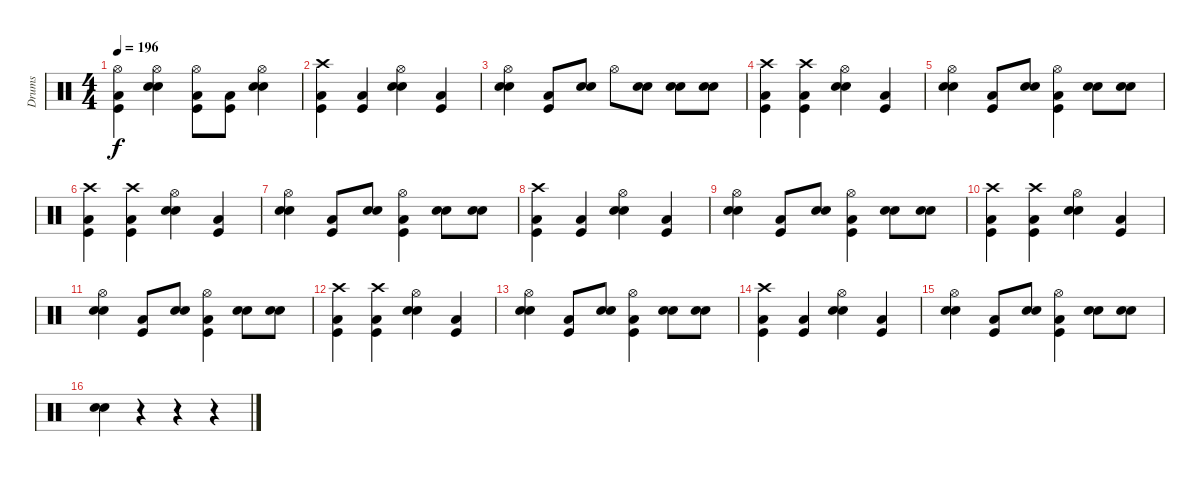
\track ("Drums" "Drums") {instrument percussion}
\staff {score}
\articulation defaults
\ts (4 4)
\tempo 196
\clef neutral
\ks c
("Hi-Hat (open)" "Kick (hit)" "Low Tom (hit)").4{dy f} ("Hi-Hat (open)" "Snare (hit) 2" "Electric Snare (hit)").4 ("Hi-Hat (open)" "Kick (hit)" "Low Tom (hit)").8 ("Kick (hit)" "Low Tom (hit)").8 ("Hi-Hat (open)" "Snare (hit) 2" "Electric Snare (hit)").4 |
("Crash high (hit)" "Kick (hit)" "Low Tom (hit)").4 ("Kick (hit)" "Low Tom (hit)").4 ("Hi-Hat (open)" "Snare (hit) 2" "Electric Snare (hit)").4 ("Low Tom (hit)" "Kick (hit)").4 |
("Hi-Hat (open)" "Snare (hit) 2" "Electric Snare (hit)").4 ("Kick (hit)" "Low Tom (hit)").8 ("Snare (hit) 2" "Electric Snare (hit)").8 "Hi-Hat (open)".8 ("Snare (hit) 2" "Electric Snare (hit)").8 ("Snare (hit) 2" "Electric Snare (hit)").8 ("Snare (hit) 2" "Electric Snare (hit)").8 |
("Crash high (hit)" "Kick (hit)" "Low Tom (hit)").4 ("Crash high (hit)" "Kick (hit)" "Low Tom (hit)").4 ("Hi-Hat (open)" "Snare (hit) 2" "Electric Snare (hit)").4 ("Low Tom (hit)" "Kick (hit)").4 |
("Hi-Hat (open)" "Snare (hit) 2" "Electric Snare (hit)").4 ("Kick (hit)" "Low Tom (hit)").8 ("Snare (hit) 2" "Electric Snare (hit)").8 ("Hi-Hat (open)" "Kick (hit)" "Low Tom (hit)").4 ("Snare (hit) 2" "Electric Snare (hit)").8 ("Snare (hit) 2" "Electric Snare (hit)").8 |
("Crash high (hit)" "Kick (hit)" "Low Tom (hit)").4 ("Crash high (hit)" "Kick (hit)" "Low Tom (hit)").4 ("Hi-Hat (open)" "Snare (hit) 2" "Electric Snare (hit)").4 ("Low Tom (hit)" "Kick (hit)").4 |
("Hi-Hat (open)" "Snare (hit) 2" "Electric Snare (hit)").4 ("Kick (hit)" "Low Tom (hit)").8 ("Snare (hit) 2" "Electric Snare (hit)").8 ("Hi-Hat (open)" "Kick (hit)" "Low Tom (hit)").4 ("Snare (hit) 2" "Electric Snare (hit)").8 ("Snare (hit) 2" "Electric Snare (hit)").8 |
("Crash high (hit)" "Kick (hit)" "Low Tom (hit)").4 ("Kick (hit)" "Low Tom (hit)").4 ("Hi-Hat (open)" "Snare (hit) 2" "Electric Snare (hit)").4 ("Low Tom (hit)" "Kick (hit)").4 |
("Hi-Hat (open)" "Snare (hit) 2" "Electric Snare (hit)").4 ("Kick (hit)" "Low Tom (hit)").8 ("Snare (hit) 2" "Electric Snare (hit)").8 ("Hi-Hat (open)" "Kick (hit)" "Low Tom (hit)").4 ("Snare (hit) 2" "Electric Snare (hit)").8 ("Snare (hit) 2" "Electric Snare (hit)").8 |
("Crash high (hit)" "Kick (hit)" "Low Tom (hit)").4 ("Crash high (hit)" "Kick (hit)" "Low Tom (hit)").4 ("Hi-Hat (open)" "Snare (hit) 2" "Electric Snare (hit)").4 ("Low Tom (hit)" "Kick (hit)").4 |
("Hi-Hat (open)" "Snare (hit) 2" "Electric Snare (hit)").4 ("Kick (hit)" "Low Tom (hit)").8 ("Snare (hit) 2" "Electric Snare (hit)").8 ("Hi-Hat (open)" "Kick (hit)" "Low Tom (hit)").4 ("Snare (hit) 2" "Electric Snare (hit)").8 ("Snare (hit) 2" "Electric Snare (hit)").8 |
("Crash high (hit)" "Kick (hit)" "Low Tom (hit)").4 ("Crash high (hit)" "Kick (hit)" "Low Tom (hit)").4 ("Hi-Hat (open)" "Snare (hit) 2" "Electric Snare (hit)").4 ("Low Tom (hit)" "Kick (hit)").4 |
("Hi-Hat (open)" "Snare (hit) 2" "Electric Snare (hit)").4 ("Kick (hit)" "Low Tom (hit)").8 ("Snare (hit) 2" "Electric Snare (hit)").8 ("Hi-Hat (open)" "Kick (hit)" "Low Tom (hit)").4 ("Snare (hit) 2" "Electric Snare (hit)").8 ("Snare (hit) 2" "Electric Snare (hit)").8 |
("Crash high (hit)" "Kick (hit)" "Low Tom (hit)").4 ("Kick (hit)" "Low Tom (hit)").4 ("Hi-Hat (open)" "Snare (hit) 2" "Electric Snare (hit)").4 ("Low Tom (hit)" "Kick (hit)").4 |
("Hi-Hat (open)" "Snare (hit) 2" "Electric Snare (hit)").4 ("Kick (hit)" "Low Tom (hit)").8 ("Snare (hit) 2" "Electric Snare (hit)").8 ("Hi-Hat (open)" "Kick (hit)" "Low Tom (hit)").4 ("Snare (hit) 2" "Electric Snare (hit)").8 ("Snare (hit) 2" "Electric Snare (hit)").8 |
("Snare (hit) 2" "Electric Snare (hit)").4 r.4 r.4 r.4
